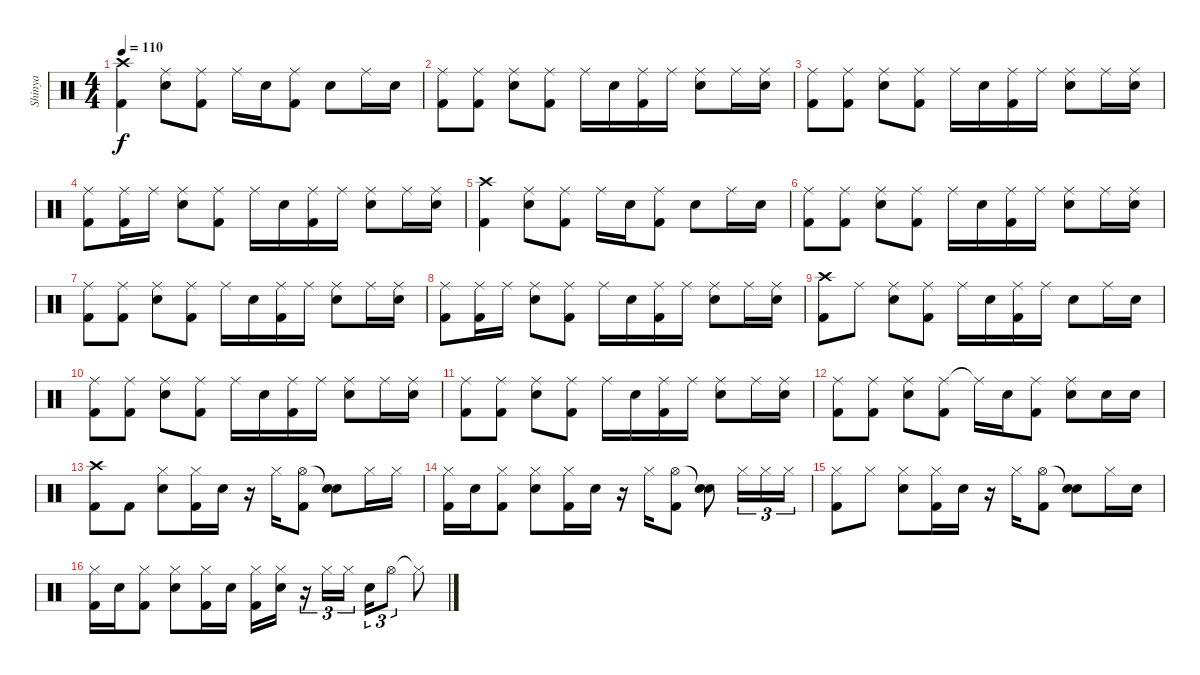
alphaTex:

\track ("Shinya" "Shinya") {instrument percussion}
\staff {score}
\articulation defaults
\ts (4 4)
\tempo 110
\clef neutral
\ks c
("Crash high (hit)" "Kick (hit) 2").4{dy f} ("Ride (middle)" "Snare (hit) 2").8 ("Ride (middle)" "Kick (hit) 2").8 "Ride (middle)".16 "Snare (hit) 2".16 ("Ride (middle)" "Kick (hit) 2").8 "Snare (hit) 2".8 "Ride (middle)".16 "Snare (hit) 2".16 |
("Ride (middle)" "Kick (hit) 2").8 ("Ride (middle)" "Kick (hit) 2").8 ("Ride (middle)" "Snare (hit) 2").8 ("Ride (middle)" "Kick (hit) 2").8 "Ride (middle)".16 "Snare (hit) 2".16 ("Ride (middle)" "Kick (hit) 2").16 "Ride (middle)".16 ("Ride (middle)" "Snare (hit) 2").8 "Ride (middle)".16 ("Ride (middle)" "Snare (hit) 2").16 |
("Ride (middle)" "Kick (hit) 2").8 ("Ride (middle)" "Kick (hit) 2").8 ("Ride (middle)" "Snare (hit) 2").8 ("Ride (middle)" "Kick (hit) 2").8 "Ride (middle)".16 "Snare (hit) 2".16 ("Ride (middle)" "Kick (hit) 2").16 "Ride (middle)".16 ("Ride (middle)" "Snare (hit) 2").8 "Ride (middle)".16 ("Ride (middle)" "Snare (hit) 2").16 |
("Ride (middle)" "Kick (hit) 2").8 ("Ride (middle)" "Kick (hit) 2").16 "Ride (middle)".16 ("Ride (middle)" "Snare (hit) 2").8 ("Ride (middle)" "Kick (hit) 2").8 "Ride (middle)".16 "Snare (hit) 2".16 ("Ride (middle)" "Kick (hit) 2").16 "Ride (middle)".16 ("Ride (middle)" "Snare (hit) 2").8 "Ride (middle)".16 ("Ride (middle)" "Snare (hit) 2").16 |
("Crash high (hit)" "Kick (hit) 2").4 ("Ride (middle)" "Snare (hit) 2").8 ("Ride (middle)" "Kick (hit) 2").8 "Ride (middle)".16 "Snare (hit) 2".16 ("Ride (middle)" "Kick (hit) 2").8 "Snare (hit) 2".8 "Ride (middle)".16 "Snare (hit) 2".16 |
("Ride (middle)" "Kick (hit) 2").8 ("Ride (middle)" "Kick (hit) 2").8 ("Ride (middle)" "Snare (hit) 2").8 ("Ride (middle)" "Kick (hit) 2").8 "Ride (middle)".16 "Snare (hit) 2".16 ("Ride (middle)" "Kick (hit) 2").16 "Ride (middle)".16 ("Ride (middle)" "Snare (hit) 2").8 "Ride (middle)".16 ("Ride (middle)" "Snare (hit) 2").16 |
("Ride (middle)" "Kick (hit) 2").8 ("Ride (middle)" "Kick (hit) 2").8 ("Ride (middle)" "Snare (hit) 2").8 ("Ride (middle)" "Kick (hit) 2").8 "Ride (middle)".16 "Snare (hit) 2".16 ("Ride (middle)" "Kick (hit) 2").16 "Ride (middle)".16 ("Ride (middle)" "Snare (hit) 2").8 "Ride (middle)".16 ("Ride (middle)" "Snare (hit) 2").16 |
("Ride (middle)" "Kick (hit) 2").8 ("Ride (middle)" "Kick (hit) 2").16 "Ride (middle)".16 ("Ride (middle)" "Snare (hit) 2").8 ("Ride (middle)" "Kick (hit) 2").8 "Ride (middle)".16 "Snare (hit) 2".16 ("Ride (middle)" "Kick (hit) 2").16 "Ride (middle)".16 ("Ride (middle)" "Snare (hit) 2").8 "Ride (middle)".16 ("Ride (middle)" "Snare (hit) 2").16 |
("Crash high (hit)" "Kick (hit) 2").8 "Ride (middle)".8 ("Ride (middle)" "Snare (hit) 2").8 ("Ride (middle)" "Kick (hit) 2").8 "Ride (middle)".16 "Snare (hit) 2".16 ("Ride (middle)" "Kick (hit) 2").16 "Ride (middle)".16 "Snare (hit) 2".8 "Ride (middle)".16 "Snare (hit) 2".16 |
("Ride (middle)" "Kick (hit) 2").8 ("Ride (middle)" "Kick (hit) 2").8 ("Ride (middle)" "Snare (hit) 2").8 ("Ride (middle)" "Kick (hit) 2").8 "Ride (middle)".16 "Snare (hit) 2".16 ("Ride (middle)" "Kick (hit) 2").16 "Ride (middle)".16 ("Ride (middle)" "Snare (hit) 2").8 "Ride (middle)".16 ("Ride (middle)" "Snare (hit) 2").16 |
("Ride (middle)" "Kick (hit) 2").8 ("Ride (middle)" "Kick (hit) 2").8 ("Ride (middle)" "Snare (hit) 2").8 ("Ride (middle)" "Kick (hit) 2").8 "Ride (middle)".16 "Snare (hit) 2".16 ("Ride (middle)" "Kick (hit) 2").16 "Ride (middle)".16 ("Ride (middle)" "Snare (hit) 2").8 "Ride (middle)".16 ("Ride (middle)" "Snare (hit) 2").16 |
("Ride (middle)" "Kick (hit) 2").8 ("Ride (middle)" "Kick (hit) 2").8 ("Ride (middle)" "Snare (hit) 2").8 ("Ride (middle)" "Kick (hit) 2").8 "Ride (middle)"{t}.16 "Snare (hit) 2".16 ("Ride (middle)" "Kick (hit) 2").8 ("Ride (middle)" "Snare (hit) 2").8 "Snare (hit) 2".16 "Snare (hit) 2".16 |
("Crash high (hit)" "Kick (hit) 2").8 "Kick (hit) 2".8 ("Hi-Hat (closed)" "Snare (hit) 2").8 ("Hi-Hat (closed)" "Kick (hit) 2").16 "Snare (hit) 2".16 r.16 "Hi-Hat (closed)".16 ("Hi-Hat (open)" "Kick (hit) 2").8 ("Snare (hit)"{t} "Snare (hit) 2").8 "Hi-Hat (closed)".16 "Hi-Hat (closed)".16 |
("Hi-Hat (closed)" "Kick (hit) 2").16 "Snare (hit) 2".16 ("Hi-Hat (closed)" "Kick (hit) 2").8 ("Hi-Hat (closed)" "Snare (hit) 2").8 ("Hi-Hat (closed)" "Kick (hit) 2").16 "Snare (hit) 2".16 r.16 "Hi-Hat (closed)".16 ("Hi-Hat (open)" "Kick (hit) 2").8 ("Snare (hit)"{t} "Snare (hit) 2").8 "Hi-Hat (closed)".16{tu (3 2)} "Hi-Hat (closed)".16{tu (3 2)} "Hi-Hat (closed)".16{tu (3 2)} |
("Hi-Hat (closed)" "Kick (hit) 2").8 "Hi-Hat (closed)".8 ("Hi-Hat (closed)" "Snare (hit) 2").8 ("Hi-Hat (closed)" "Kick (hit) 2").16 "Snare (hit) 2".16 r.16 "Hi-Hat (closed)".16 ("Hi-Hat (open)" "Kick (hit) 2").8 ("Snare (hit)"{t} "Snare (hit) 2").8 "Hi-Hat (closed)".16 "Snare (hit) 2".16 |
("Hi-Hat (closed)" "Kick (hit) 2").16 "Snare (hit) 2".16 ("Hi-Hat (closed)" "Kick (hit) 2").8 ("Hi-Hat (closed)" "Snare (hit) 2").8 ("Hi-Hat (closed)" "Kick (hit) 2").16 "Snare (hit) 2".16 ("Hi-Hat (closed)" "Kick (hit) 2").16 ("Hi-Hat (closed)" "Snare (hit) 2").16 r.16{tu (3 2)} "Hi-Hat (closed)".16{tu (3 2)} "Hi-Hat (closed)".16{tu (3 2)} "Snare (hit) 2".16{tu (3 2)} "Hi-Hat (open)".8{tu (3 2)} "Hi-Hat (closed)"{t}.8
